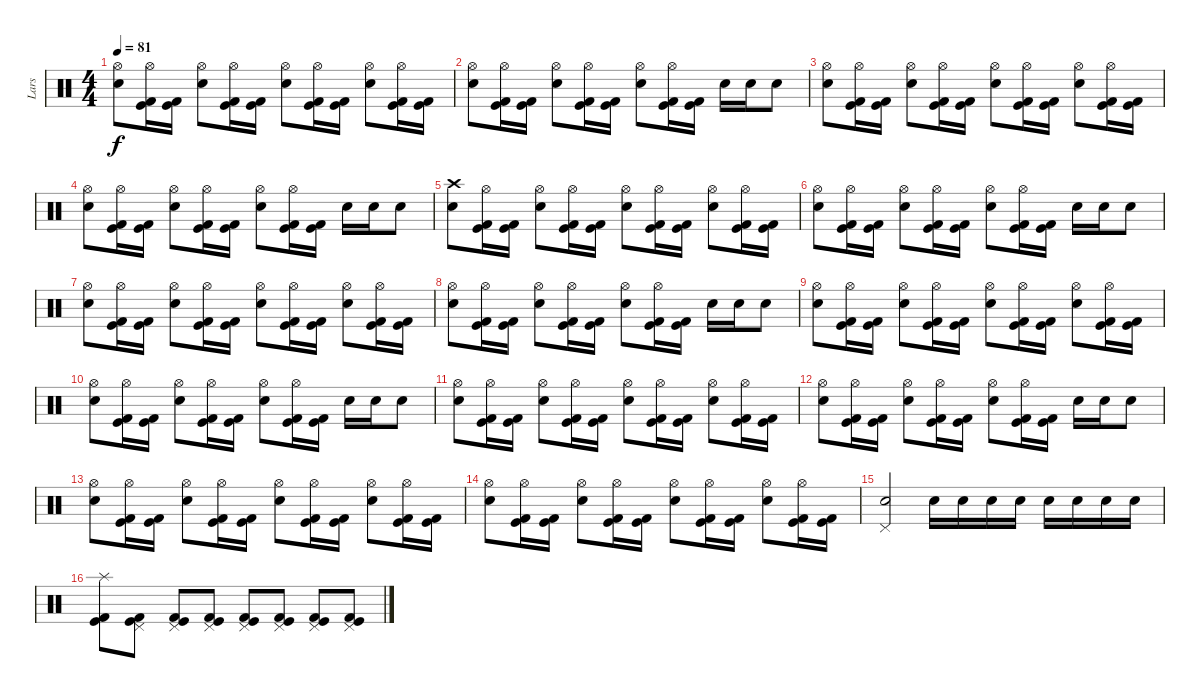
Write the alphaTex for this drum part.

\track ("Lars" "Lars") {instrument percussion}
\staff {score}
\articulation defaults
\ts (4 4)
\tempo 81
\clef neutral
\ks c
("Hi-Hat (open)" "Electric Snare (hit)").8{dy f} ("Hi-Hat (open)" "Kick (hit)" "Kick (hit) 2").16 ("Kick (hit)" "Kick (hit) 2").16 ("Hi-Hat (open)" "Electric Snare (hit)").8 ("Hi-Hat (open)" "Kick (hit)" "Kick (hit) 2").16 ("Kick (hit)" "Kick (hit) 2").16 ("Hi-Hat (open)" "Electric Snare (hit)").8 ("Hi-Hat (open)" "Kick (hit)" "Kick (hit) 2").16 ("Kick (hit)" "Kick (hit) 2").16 ("Hi-Hat (open)" "Electric Snare (hit)").8 ("Hi-Hat (open)" "Kick (hit)" "Kick (hit) 2").16 ("Kick (hit)" "Kick (hit) 2").16 |
("Hi-Hat (open)" "Electric Snare (hit)").8 ("Hi-Hat (open)" "Kick (hit)" "Kick (hit) 2").16 ("Kick (hit)" "Kick (hit) 2").16 ("Hi-Hat (open)" "Electric Snare (hit)").8 ("Hi-Hat (open)" "Kick (hit)" "Kick (hit) 2").16 ("Kick (hit)" "Kick (hit) 2").16 ("Hi-Hat (open)" "Electric Snare (hit)").8 ("Hi-Hat (open)" "Kick (hit)" "Kick (hit) 2").16 ("Kick (hit)" "Kick (hit) 2").16 "Electric Snare (hit)".16 "Electric Snare (hit)".16 "Electric Snare (hit)".8 |
("Hi-Hat (open)" "Electric Snare (hit)").8 ("Hi-Hat (open)" "Kick (hit)" "Kick (hit) 2").16 ("Kick (hit)" "Kick (hit) 2").16 ("Hi-Hat (open)" "Electric Snare (hit)").8 ("Hi-Hat (open)" "Kick (hit)" "Kick (hit) 2").16 ("Kick (hit)" "Kick (hit) 2").16 ("Hi-Hat (open)" "Electric Snare (hit)").8 ("Hi-Hat (open)" "Kick (hit)" "Kick (hit) 2").16 ("Kick (hit)" "Kick (hit) 2").16 ("Hi-Hat (open)" "Electric Snare (hit)").8 ("Hi-Hat (open)" "Kick (hit)" "Kick (hit) 2").16 ("Kick (hit)" "Kick (hit) 2").16 |
("Hi-Hat (open)" "Electric Snare (hit)").8 ("Hi-Hat (open)" "Kick (hit)" "Kick (hit) 2").16 ("Kick (hit)" "Kick (hit) 2").16 ("Hi-Hat (open)" "Electric Snare (hit)").8 ("Hi-Hat (open)" "Kick (hit)" "Kick (hit) 2").16 ("Kick (hit)" "Kick (hit) 2").16 ("Hi-Hat (open)" "Electric Snare (hit)").8 ("Hi-Hat (open)" "Kick (hit)" "Kick (hit) 2").16 ("Kick (hit)" "Kick (hit) 2").16 "Electric Snare (hit)".16 "Electric Snare (hit)".16 "Electric Snare (hit)".8 |
("Crash high (hit)" "Electric Snare (hit)").8 ("Hi-Hat (open)" "Kick (hit)" "Kick (hit) 2").16 ("Kick (hit)" "Kick (hit) 2").16 ("Hi-Hat (open)" "Electric Snare (hit)").8 ("Hi-Hat (open)" "Kick (hit)" "Kick (hit) 2").16 ("Kick (hit)" "Kick (hit) 2").16 ("Hi-Hat (open)" "Electric Snare (hit)").8 ("Hi-Hat (open)" "Kick (hit)" "Kick (hit) 2").16 ("Kick (hit)" "Kick (hit) 2").16 ("Hi-Hat (open)" "Electric Snare (hit)").8 ("Hi-Hat (open)" "Kick (hit)" "Kick (hit) 2").16 ("Kick (hit)" "Kick (hit) 2").16 |
("Hi-Hat (open)" "Electric Snare (hit)").8 ("Hi-Hat (open)" "Kick (hit)" "Kick (hit) 2").16 ("Kick (hit)" "Kick (hit) 2").16 ("Hi-Hat (open)" "Electric Snare (hit)").8 ("Hi-Hat (open)" "Kick (hit)" "Kick (hit) 2").16 ("Kick (hit)" "Kick (hit) 2").16 ("Hi-Hat (open)" "Electric Snare (hit)").8 ("Hi-Hat (open)" "Kick (hit)" "Kick (hit) 2").16 ("Kick (hit)" "Kick (hit) 2").16 "Electric Snare (hit)".16 "Electric Snare (hit)".16 "Electric Snare (hit)".8 |
("Hi-Hat (open)" "Electric Snare (hit)").8 ("Hi-Hat (open)" "Kick (hit)" "Kick (hit) 2").16 ("Kick (hit)" "Kick (hit) 2").16 ("Hi-Hat (open)" "Electric Snare (hit)").8 ("Hi-Hat (open)" "Kick (hit)" "Kick (hit) 2").16 ("Kick (hit)" "Kick (hit) 2").16 ("Hi-Hat (open)" "Electric Snare (hit)").8 ("Hi-Hat (open)" "Kick (hit)" "Kick (hit) 2").16 ("Kick (hit)" "Kick (hit) 2").16 ("Hi-Hat (open)" "Electric Snare (hit)").8 ("Hi-Hat (open)" "Kick (hit)" "Kick (hit) 2").16 ("Kick (hit)" "Kick (hit) 2").16 |
("Hi-Hat (open)" "Electric Snare (hit)").8 ("Hi-Hat (open)" "Kick (hit)" "Kick (hit) 2").16 ("Kick (hit)" "Kick (hit) 2").16 ("Hi-Hat (open)" "Electric Snare (hit)").8 ("Hi-Hat (open)" "Kick (hit)" "Kick (hit) 2").16 ("Kick (hit)" "Kick (hit) 2").16 ("Hi-Hat (open)" "Electric Snare (hit)").8 ("Hi-Hat (open)" "Kick (hit)" "Kick (hit) 2").16 ("Kick (hit)" "Kick (hit) 2").16 "Electric Snare (hit)".16 "Electric Snare (hit)".16 "Electric Snare (hit)".8 |
("Hi-Hat (open)" "Electric Snare (hit)").8 ("Hi-Hat (open)" "Kick (hit)" "Kick (hit) 2").16 ("Kick (hit)" "Kick (hit) 2").16 ("Hi-Hat (open)" "Electric Snare (hit)").8 ("Hi-Hat (open)" "Kick (hit)" "Kick (hit) 2").16 ("Kick (hit)" "Kick (hit) 2").16 ("Hi-Hat (open)" "Electric Snare (hit)").8 ("Hi-Hat (open)" "Kick (hit)" "Kick (hit) 2").16 ("Kick (hit)" "Kick (hit) 2").16 ("Hi-Hat (open)" "Electric Snare (hit)").8 ("Hi-Hat (open)" "Kick (hit)" "Kick (hit) 2").16 ("Kick (hit)" "Kick (hit) 2").16 |
("Hi-Hat (open)" "Electric Snare (hit)").8 ("Hi-Hat (open)" "Kick (hit)" "Kick (hit) 2").16 ("Kick (hit)" "Kick (hit) 2").16 ("Hi-Hat (open)" "Electric Snare (hit)").8 ("Hi-Hat (open)" "Kick (hit)" "Kick (hit) 2").16 ("Kick (hit)" "Kick (hit) 2").16 ("Hi-Hat (open)" "Electric Snare (hit)").8 ("Hi-Hat (open)" "Kick (hit)" "Kick (hit) 2").16 ("Kick (hit)" "Kick (hit) 2").16 "Electric Snare (hit)".16 "Electric Snare (hit)".16 "Electric Snare (hit)".8 |
("Hi-Hat (open)" "Electric Snare (hit)").8 ("Hi-Hat (open)" "Kick (hit)" "Kick (hit) 2").16 ("Kick (hit)" "Kick (hit) 2").16 ("Hi-Hat (open)" "Electric Snare (hit)").8 ("Hi-Hat (open)" "Kick (hit)" "Kick (hit) 2").16 ("Kick (hit)" "Kick (hit) 2").16 ("Hi-Hat (open)" "Electric Snare (hit)").8 ("Hi-Hat (open)" "Kick (hit)" "Kick (hit) 2").16 ("Kick (hit)" "Kick (hit) 2").16 ("Hi-Hat (open)" "Electric Snare (hit)").8 ("Hi-Hat (open)" "Kick (hit)" "Kick (hit) 2").16 ("Kick (hit)" "Kick (hit) 2").16 |
("Hi-Hat (open)" "Electric Snare (hit)").8 ("Hi-Hat (open)" "Kick (hit)" "Kick (hit) 2").16 ("Kick (hit)" "Kick (hit) 2").16 ("Hi-Hat (open)" "Electric Snare (hit)").8 ("Hi-Hat (open)" "Kick (hit)" "Kick (hit) 2").16 ("Kick (hit)" "Kick (hit) 2").16 ("Hi-Hat (open)" "Electric Snare (hit)").8 ("Hi-Hat (open)" "Kick (hit)" "Kick (hit) 2").16 ("Kick (hit)" "Kick (hit) 2").16 "Electric Snare (hit)".16 "Electric Snare (hit)".16 "Electric Snare (hit)".8 |
("Hi-Hat (open)" "Electric Snare (hit)").8 ("Hi-Hat (open)" "Kick (hit)" "Kick (hit) 2").16 ("Kick (hit)" "Kick (hit) 2").16 ("Hi-Hat (open)" "Electric Snare (hit)").8 ("Hi-Hat (open)" "Kick (hit)" "Kick (hit) 2").16 ("Kick (hit)" "Kick (hit) 2").16 ("Hi-Hat (open)" "Electric Snare (hit)").8 ("Hi-Hat (open)" "Kick (hit)" "Kick (hit) 2").16 ("Kick (hit)" "Kick (hit) 2").16 ("Hi-Hat (open)" "Electric Snare (hit)").8 ("Hi-Hat (open)" "Kick (hit)" "Kick (hit) 2").16 ("Kick (hit)" "Kick (hit) 2").16 |
("Hi-Hat (open)" "Electric Snare (hit)").8 ("Hi-Hat (open)" "Kick (hit)" "Kick (hit) 2").16 ("Kick (hit)" "Kick (hit) 2").16 ("Hi-Hat (open)" "Electric Snare (hit)").8 ("Hi-Hat (open)" "Kick (hit)" "Kick (hit) 2").16 ("Kick (hit)" "Kick (hit) 2").16 ("Hi-Hat (open)" "Electric Snare (hit)").8 ("Hi-Hat (open)" "Kick (hit)" "Kick (hit) 2").16 ("Kick (hit)" "Kick (hit) 2").16 ("Hi-Hat (open)" "Electric Snare (hit)").8 ("Hi-Hat (open)" "Kick (hit)" "Kick (hit) 2").16 ("Kick (hit)" "Kick (hit) 2").16 |
("Pedal Hi-Hat (hit)" "Electric Snare (hit)").2 "Electric Snare (hit)".16 "Electric Snare (hit)".16 "Electric Snare (hit)".16 "Electric Snare (hit)".16 "Electric Snare (hit)".16 "Electric Snare (hit)".16 "Electric Snare (hit)".16 "Electric Snare (hit)".16 |
("Splash (hit)" "Kick (hit)" "Kick (hit) 2").8 ("Pedal Hi-Hat (hit)" "Kick (hit)" "Kick (hit) 2").8 ("Pedal Hi-Hat (hit)" "Kick (hit)" "Kick (hit) 2").8 ("Pedal Hi-Hat (hit)" "Kick (hit)" "Kick (hit) 2").8 ("Pedal Hi-Hat (hit)" "Kick (hit)" "Kick (hit) 2").8 ("Pedal Hi-Hat (hit)" "Kick (hit)" "Kick (hit) 2").8 ("Pedal Hi-Hat (hit)" "Kick (hit)" "Kick (hit) 2").8 ("Pedal Hi-Hat (hit)" "Kick (hit)" "Kick (hit) 2").8
